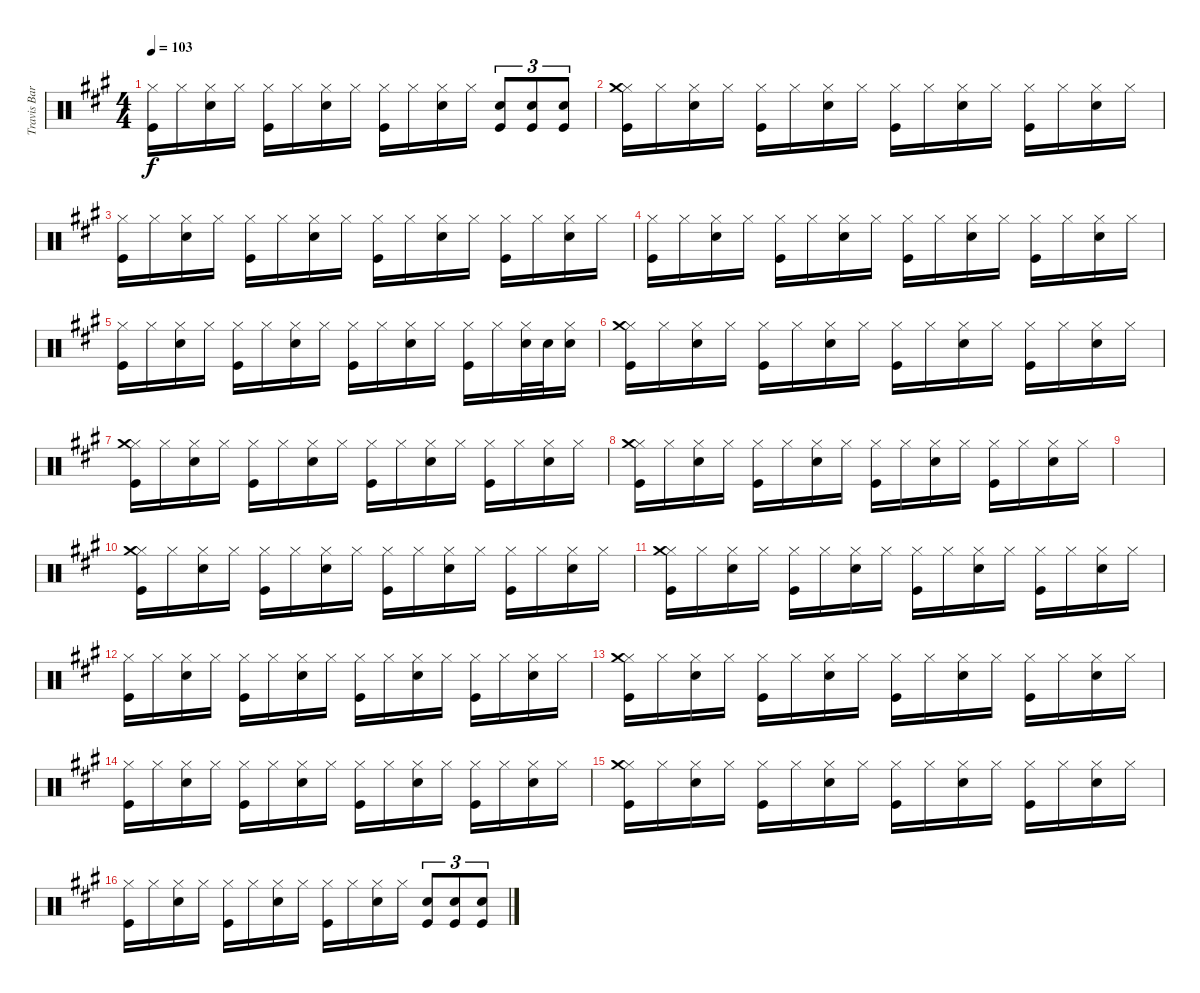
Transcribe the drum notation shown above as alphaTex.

\track ("Travis Barker (Schlagzeug)" "Travis Bar") {instrument percussion}
\staff {score}
\articulation defaults
\ts (4 4)
\tempo 103
\clef neutral
\ks a
("Hi-Hat (closed)" "Kick (hit)").16{dy f} "Hi-Hat (closed)".16 ("Hi-Hat (closed)" "Snare (hit) 2").16 "Hi-Hat (closed)".16 ("Hi-Hat (closed)" "Kick (hit)").16 "Hi-Hat (closed)".16 ("Hi-Hat (closed)" "Snare (hit) 2").16 "Hi-Hat (closed)".16 ("Hi-Hat (closed)" "Kick (hit)").16 "Hi-Hat (closed)".16 ("Hi-Hat (closed)" "Snare (hit) 2").16 "Hi-Hat (closed)".16 ("Snare (hit) 2" "Kick (hit)").8{tu (3 2)} ("Snare (hit) 2" "Kick (hit)").8{tu (3 2)} ("Snare (hit) 2" "Kick (hit)").8{tu (3 2)} |
("Hi-Hat (closed)" "Crash medium (hit)" "Kick (hit)").16 "Hi-Hat (closed)".16 ("Hi-Hat (closed)" "Snare (hit) 2").16 "Hi-Hat (closed)".16 ("Hi-Hat (closed)" "Kick (hit)").16 "Hi-Hat (closed)".16 ("Hi-Hat (closed)" "Snare (hit) 2").16 "Hi-Hat (closed)".16 ("Hi-Hat (closed)" "Kick (hit)").16 "Hi-Hat (closed)".16 ("Hi-Hat (closed)" "Snare (hit) 2").16 "Hi-Hat (closed)".16 ("Hi-Hat (closed)" "Kick (hit)").16 "Hi-Hat (closed)".16 ("Hi-Hat (closed)" "Snare (hit) 2").16 "Hi-Hat (closed)".16 |
("Hi-Hat (closed)" "Kick (hit)").16 "Hi-Hat (closed)".16 ("Hi-Hat (closed)" "Snare (hit) 2").16 "Hi-Hat (closed)".16 ("Hi-Hat (closed)" "Kick (hit)").16 "Hi-Hat (closed)".16 ("Hi-Hat (closed)" "Snare (hit) 2").16 "Hi-Hat (closed)".16 ("Hi-Hat (closed)" "Kick (hit)").16 "Hi-Hat (closed)".16 ("Hi-Hat (closed)" "Snare (hit) 2").16 "Hi-Hat (closed)".16 ("Hi-Hat (closed)" "Kick (hit)").16 "Hi-Hat (closed)".16 ("Hi-Hat (closed)" "Snare (hit) 2").16 "Hi-Hat (closed)".16 |
("Hi-Hat (closed)" "Kick (hit)").16 "Hi-Hat (closed)".16 ("Hi-Hat (closed)" "Snare (hit) 2").16 "Hi-Hat (closed)".16 ("Hi-Hat (closed)" "Kick (hit)").16 "Hi-Hat (closed)".16 ("Hi-Hat (closed)" "Snare (hit) 2").16 "Hi-Hat (closed)".16 ("Hi-Hat (closed)" "Kick (hit)").16 "Hi-Hat (closed)".16 ("Hi-Hat (closed)" "Snare (hit) 2").16 "Hi-Hat (closed)".16 ("Hi-Hat (closed)" "Kick (hit)").16 "Hi-Hat (closed)".16 ("Hi-Hat (closed)" "Snare (hit) 2").16 "Hi-Hat (closed)".16 |
("Hi-Hat (closed)" "Kick (hit)").16 "Hi-Hat (closed)".16 ("Hi-Hat (closed)" "Snare (hit) 2").16 "Hi-Hat (closed)".16 ("Hi-Hat (closed)" "Kick (hit)").16 "Hi-Hat (closed)".16 ("Hi-Hat (closed)" "Snare (hit) 2").16 "Hi-Hat (closed)".16 ("Hi-Hat (closed)" "Kick (hit)").16 "Hi-Hat (closed)".16 ("Hi-Hat (closed)" "Snare (hit) 2").16 "Hi-Hat (closed)".16 ("Hi-Hat (closed)" "Kick (hit)").16 "Hi-Hat (closed)".16 ("Hi-Hat (closed)" "Snare (hit) 2").32 "Snare (hit) 2".32 ("Hi-Hat (closed)" "Snare (hit) 2").16 |
("Hi-Hat (closed)" "Crash medium (hit)" "Kick (hit)").16 "Hi-Hat (closed)".16 ("Hi-Hat (closed)" "Snare (hit) 2").16 "Hi-Hat (closed)".16 ("Hi-Hat (closed)" "Kick (hit)").16 "Hi-Hat (closed)".16 ("Hi-Hat (closed)" "Snare (hit) 2").16 "Hi-Hat (closed)".16 ("Hi-Hat (closed)" "Kick (hit)").16 "Hi-Hat (closed)".16 ("Hi-Hat (closed)" "Snare (hit) 2").16 "Hi-Hat (closed)".16 ("Hi-Hat (closed)" "Kick (hit)").16 "Hi-Hat (closed)".16 ("Hi-Hat (closed)" "Snare (hit) 2").16 "Hi-Hat (closed)".16 |
("Hi-Hat (closed)" "Crash medium (hit)" "Kick (hit)").16 "Hi-Hat (closed)".16 ("Hi-Hat (closed)" "Snare (hit) 2").16 "Hi-Hat (closed)".16 ("Hi-Hat (closed)" "Kick (hit)").16 "Hi-Hat (closed)".16 ("Hi-Hat (closed)" "Snare (hit) 2").16 "Hi-Hat (closed)".16 ("Hi-Hat (closed)" "Kick (hit)").16 "Hi-Hat (closed)".16 ("Hi-Hat (closed)" "Snare (hit) 2").16 "Hi-Hat (closed)".16 ("Hi-Hat (closed)" "Kick (hit)").16 "Hi-Hat (closed)".16 ("Hi-Hat (closed)" "Snare (hit) 2").16 "Hi-Hat (closed)".16 |
("Hi-Hat (closed)" "Crash medium (hit)" "Kick (hit)").16 "Hi-Hat (closed)".16 ("Hi-Hat (closed)" "Snare (hit) 2").16 "Hi-Hat (closed)".16 ("Hi-Hat (closed)" "Kick (hit)").16 "Hi-Hat (closed)".16 ("Hi-Hat (closed)" "Snare (hit) 2").16 "Hi-Hat (closed)".16 ("Hi-Hat (closed)" "Kick (hit)").16 "Hi-Hat (closed)".16 ("Hi-Hat (closed)" "Snare (hit) 2").16 "Hi-Hat (closed)".16 ("Hi-Hat (closed)" "Kick (hit)").16 "Hi-Hat (closed)".16 ("Hi-Hat (closed)" "Snare (hit) 2").16 "Hi-Hat (closed)".16 |
|
("Hi-Hat (closed)" "Crash medium (hit)" "Kick (hit)").16 "Hi-Hat (closed)".16 ("Hi-Hat (closed)" "Snare (hit) 2").16 "Hi-Hat (closed)".16 ("Hi-Hat (closed)" "Kick (hit)").16 "Hi-Hat (closed)".16 ("Hi-Hat (closed)" "Snare (hit) 2").16 "Hi-Hat (closed)".16 ("Hi-Hat (closed)" "Kick (hit)").16 "Hi-Hat (closed)".16 ("Hi-Hat (closed)" "Snare (hit) 2").16 "Hi-Hat (closed)".16 ("Hi-Hat (closed)" "Kick (hit)").16 "Hi-Hat (closed)".16 ("Hi-Hat (closed)" "Snare (hit) 2").16 "Hi-Hat (closed)".16 |
("Hi-Hat (closed)" "Crash medium (hit)" "Kick (hit)").16 "Hi-Hat (closed)".16 ("Hi-Hat (closed)" "Snare (hit) 2").16 "Hi-Hat (closed)".16 ("Hi-Hat (closed)" "Kick (hit)").16 "Hi-Hat (closed)".16 ("Hi-Hat (closed)" "Snare (hit) 2").16 "Hi-Hat (closed)".16 ("Hi-Hat (closed)" "Kick (hit)").16 "Hi-Hat (closed)".16 ("Hi-Hat (closed)" "Snare (hit) 2").16 "Hi-Hat (closed)".16 ("Hi-Hat (closed)" "Kick (hit)").16 "Hi-Hat (closed)".16 ("Hi-Hat (closed)" "Snare (hit) 2").16 "Hi-Hat (closed)".16 |
("Hi-Hat (closed)" "Kick (hit)").16 "Hi-Hat (closed)".16 ("Hi-Hat (closed)" "Snare (hit) 2").16 "Hi-Hat (closed)".16 ("Hi-Hat (closed)" "Kick (hit)").16 "Hi-Hat (closed)".16 ("Hi-Hat (closed)" "Snare (hit) 2").16 "Hi-Hat (closed)".16 ("Hi-Hat (closed)" "Kick (hit)").16 "Hi-Hat (closed)".16 ("Hi-Hat (closed)" "Snare (hit) 2").16 "Hi-Hat (closed)".16 ("Hi-Hat (closed)" "Kick (hit)").16 "Hi-Hat (closed)".16 ("Hi-Hat (closed)" "Snare (hit) 2").16 "Hi-Hat (closed)".16 |
("Hi-Hat (closed)" "Crash medium (hit)" "Kick (hit)").16 "Hi-Hat (closed)".16 ("Hi-Hat (closed)" "Snare (hit) 2").16 "Hi-Hat (closed)".16 ("Hi-Hat (closed)" "Kick (hit)").16 "Hi-Hat (closed)".16 ("Hi-Hat (closed)" "Snare (hit) 2").16 "Hi-Hat (closed)".16 ("Hi-Hat (closed)" "Kick (hit)").16 "Hi-Hat (closed)".16 ("Hi-Hat (closed)" "Snare (hit) 2").16 "Hi-Hat (closed)".16 ("Hi-Hat (closed)" "Kick (hit)").16 "Hi-Hat (closed)".16 ("Hi-Hat (closed)" "Snare (hit) 2").16 "Hi-Hat (closed)".16 |
("Hi-Hat (closed)" "Kick (hit)").16 "Hi-Hat (closed)".16 ("Hi-Hat (closed)" "Snare (hit) 2").16 "Hi-Hat (closed)".16 ("Hi-Hat (closed)" "Kick (hit)").16 "Hi-Hat (closed)".16 ("Hi-Hat (closed)" "Snare (hit) 2").16 "Hi-Hat (closed)".16 ("Hi-Hat (closed)" "Kick (hit)").16 "Hi-Hat (closed)".16 ("Hi-Hat (closed)" "Snare (hit) 2").16 "Hi-Hat (closed)".16 ("Hi-Hat (closed)" "Kick (hit)").16 "Hi-Hat (closed)".16 ("Hi-Hat (closed)" "Snare (hit) 2").16 "Hi-Hat (closed)".16 |
("Hi-Hat (closed)" "Crash medium (hit)" "Kick (hit)").16 "Hi-Hat (closed)".16 ("Hi-Hat (closed)" "Snare (hit) 2").16 "Hi-Hat (closed)".16 ("Hi-Hat (closed)" "Kick (hit)").16 "Hi-Hat (closed)".16 ("Hi-Hat (closed)" "Snare (hit) 2").16 "Hi-Hat (closed)".16 ("Hi-Hat (closed)" "Kick (hit)").16 "Hi-Hat (closed)".16 ("Hi-Hat (closed)" "Snare (hit) 2").16 "Hi-Hat (closed)".16 ("Hi-Hat (closed)" "Kick (hit)").16 "Hi-Hat (closed)".16 ("Hi-Hat (closed)" "Snare (hit) 2").16 "Hi-Hat (closed)".16 |
("Hi-Hat (closed)" "Kick (hit)").16 "Hi-Hat (closed)".16 ("Hi-Hat (closed)" "Snare (hit) 2").16 "Hi-Hat (closed)".16 ("Hi-Hat (closed)" "Kick (hit)").16 "Hi-Hat (closed)".16 ("Hi-Hat (closed)" "Snare (hit) 2").16 "Hi-Hat (closed)".16 ("Hi-Hat (closed)" "Kick (hit)").16 "Hi-Hat (closed)".16 ("Hi-Hat (closed)" "Snare (hit) 2").16 "Hi-Hat (closed)".16 ("Snare (hit) 2" "Kick (hit)").8{tu (3 2)} ("Snare (hit) 2" "Kick (hit)").8{tu (3 2)} ("Snare (hit) 2" "Kick (hit)").8{tu (3 2)}
